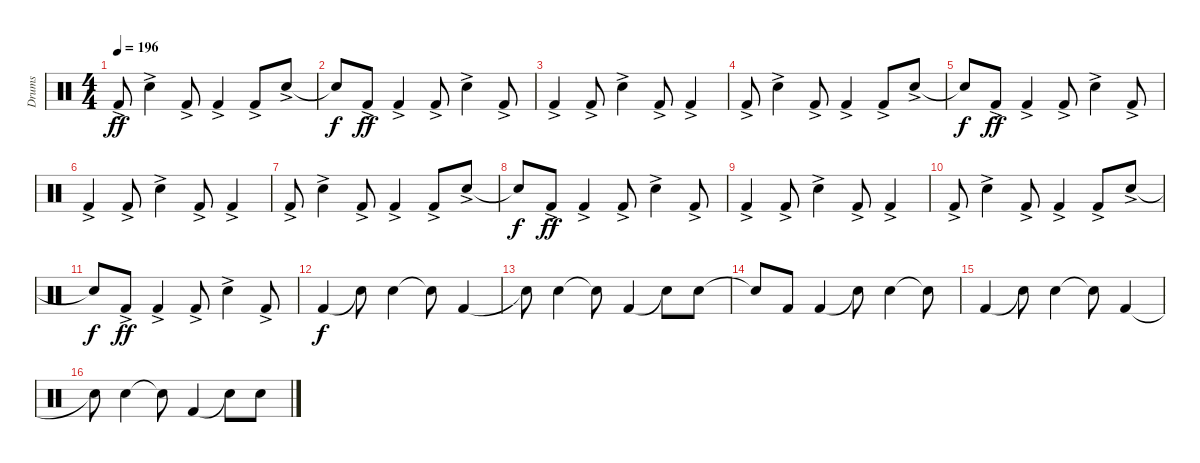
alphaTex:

\track ("Drums" "Drums") {instrument percussion}
\staff {score}
\articulation defaults
\ts (4 4)
\tempo 196
\clef neutral
\ks c "Kick (hit) 2"{ac}.8{dy ff} "Electric Snare (hit)"{ac}.4 "Kick (hit) 2"{ac}.8 "Kick (hit) 2"{ac}.4 "Kick (hit) 2"{ac}.8 "Electric Snare (hit)"{ac}.8
|
"Snare (hit)"{t}.8{dy f} "Kick (hit) 2"{ac}.8{dy ff} "Kick (hit) 2"{ac}.4 "Kick (hit) 2"{ac}.8 "Electric Snare (hit)"{ac}.4 "Kick (hit) 2"{ac}.8 |
"Kick (hit) 2"{ac}.4 "Kick (hit) 2"{ac}.8 "Electric Snare (hit)"{ac}.4 "Kick (hit) 2"{ac}.8 "Kick (hit) 2"{ac}.4 |
"Kick (hit) 2"{ac}.8 "Electric Snare (hit)"{ac}.4 "Kick (hit) 2"{ac}.8 "Kick (hit) 2"{ac}.4 "Kick (hit) 2"{ac}.8 "Electric Snare (hit)"{ac}.8 |
"Snare (hit)"{t}.8{dy f} "Kick (hit) 2"{ac}.8{dy ff} "Kick (hit) 2"{ac}.4 "Kick (hit) 2"{ac}.8 "Electric Snare (hit)"{ac}.4 "Kick (hit) 2"{ac}.8 |
"Kick (hit) 2"{ac}.4 "Kick (hit) 2"{ac}.8 "Electric Snare (hit)"{ac}.4 "Kick (hit) 2"{ac}.8 "Kick (hit) 2"{ac}.4 |
"Kick (hit) 2"{ac}.8 "Electric Snare (hit)"{ac}.4 "Kick (hit) 2"{ac}.8 "Kick (hit) 2"{ac}.4 "Kick (hit) 2"{ac}.8 "Electric Snare (hit)"{ac}.8 |
"Snare (hit)"{t}.8{dy f} "Kick (hit) 2"{ac}.8{dy ff} "Kick (hit) 2"{ac}.4 "Kick (hit) 2"{ac}.8 "Electric Snare (hit)"{ac}.4 "Kick (hit) 2"{ac}.8 |
"Kick (hit) 2"{ac}.4 "Kick (hit) 2"{ac}.8 "Electric Snare (hit)"{ac}.4 "Kick (hit) 2"{ac}.8 "Kick (hit) 2"{ac}.4 |
"Kick (hit) 2"{ac}.8 "Electric Snare (hit)"{ac}.4 "Kick (hit) 2"{ac}.8 "Kick (hit) 2"{ac}.4 "Kick (hit) 2"{ac}.8 "Electric Snare (hit)"{ac}.8 |
"Snare (hit)"{t}.8{dy f} "Kick (hit) 2"{ac}.8{dy ff} "Kick (hit) 2"{ac}.4 "Kick (hit) 2"{ac}.8 "Electric Snare (hit)"{ac}.4 "Kick (hit) 2"{ac}.8 |
"Kick (hit) 2".4{dy f} "Snare (hit)"{t}.8 "Electric Snare (hit)".4 "Snare (hit)"{t}.8 "Kick (hit) 2".4 |
"Snare (hit)"{t}.8 "Electric Snare (hit)".4 "Snare (hit)"{t}.8 "Kick (hit) 2".4 "Snare (hit)"{t}.8 "Electric Snare (hit)".8 |
"Snare (hit)"{t}.8 "Kick (hit) 2".8 "Kick (hit) 2".4 "Snare (hit)"{t}.8 "Electric Snare (hit)".4 "Snare (hit)"{t}.8 |
"Kick (hit) 2".4 "Snare (hit)"{t}.8 "Electric Snare (hit)".4 "Snare (hit)"{t}.8 "Kick (hit) 2".4 |
"Snare (hit)"{t}.8 "Electric Snare (hit)".4 "Snare (hit)"{t}.8 "Kick (hit) 2".4 "Snare (hit)"{t}.8 "Electric Snare (hit)".8
